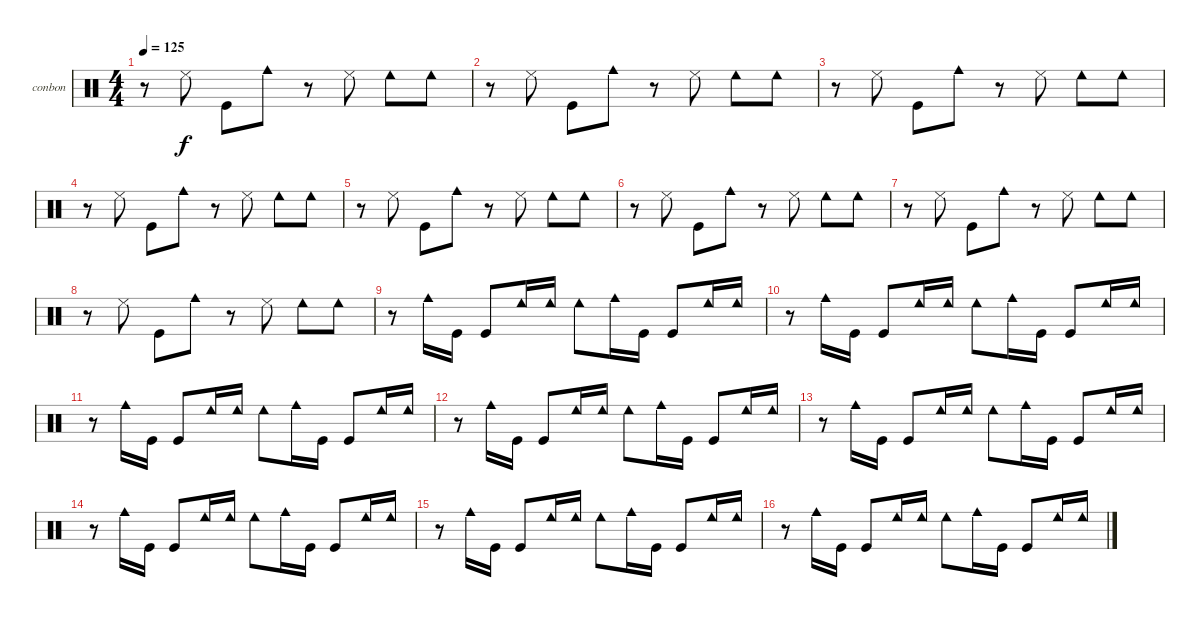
\bracketExtendMode groupsimilarinstruments
\firstSystemTrackNameOrientation horizontal
\otherSystemsTrackNameOrientation horizontal
\track ("Bongos N Congas" "conbon") {instrument percussion}
\staff {score}
\articulation defaults
\ts (4 4)
\tempo 125
\clef neutral
\ks c
r.8{dy f} "Cowbell low (tip)".8 "Kick (hit)".8 "Cowbell medium (hit)".8 r.8 "Cowbell low (tip)".8 "Cowbell low (hit)".8 "Cowbell low (hit)".8 |
r.8 "Cowbell low (tip)".8 "Kick (hit)".8 "Cowbell medium (hit)".8 r.8 "Cowbell low (tip)".8 "Cowbell low (hit)".8 "Cowbell low (hit)".8 |
r.8 "Cowbell low (tip)".8 "Kick (hit)".8 "Cowbell medium (hit)".8 r.8 "Cowbell low (tip)".8 "Cowbell low (hit)".8 "Cowbell low (hit)".8 |
r.8 "Cowbell low (tip)".8 "Kick (hit)".8 "Cowbell medium (hit)".8 r.8 "Cowbell low (tip)".8 "Cowbell low (hit)".8 "Cowbell low (hit)".8 |
r.8 "Cowbell low (tip)".8 "Kick (hit)".8 "Cowbell medium (hit)".8 r.8 "Cowbell low (tip)".8 "Cowbell low (hit)".8 "Cowbell low (hit)".8 |
r.8 "Cowbell low (tip)".8 "Kick (hit)".8 "Cowbell medium (hit)".8 r.8 "Cowbell low (tip)".8 "Cowbell low (hit)".8 "Cowbell low (hit)".8 |
r.8 "Cowbell low (tip)".8 "Kick (hit)".8 "Cowbell medium (hit)".8 r.8 "Cowbell low (tip)".8 "Cowbell low (hit)".8 "Cowbell low (hit)".8 |
r.8 "Cowbell low (tip)".8 "Kick (hit)".8 "Cowbell medium (hit)".8 r.8 "Cowbell low (tip)".8 "Cowbell low (hit)".8 "Cowbell low (hit)".8 |
r.8 "Cowbell medium (hit)".16 "Kick (hit)".16 "Kick (hit)".8 "Cowbell low (hit)".16 "Cowbell low (hit)".16 "Cowbell low (hit)".8 "Cowbell medium (hit)".16 "Kick (hit)".16 "Kick (hit)".8 "Cowbell low (hit)".16 "Cowbell low (hit)".16 |
r.8 "Cowbell medium (hit)".16 "Kick (hit)".16 "Kick (hit)".8 "Cowbell low (hit)".16 "Cowbell low (hit)".16 "Cowbell low (hit)".8 "Cowbell medium (hit)".16 "Kick (hit)".16 "Kick (hit)".8 "Cowbell low (hit)".16 "Cowbell low (hit)".16 |
r.8 "Cowbell medium (hit)".16 "Kick (hit)".16 "Kick (hit)".8 "Cowbell low (hit)".16 "Cowbell low (hit)".16 "Cowbell low (hit)".8 "Cowbell medium (hit)".16 "Kick (hit)".16 "Kick (hit)".8 "Cowbell low (hit)".16 "Cowbell low (hit)".16 |
r.8 "Cowbell medium (hit)".16 "Kick (hit)".16 "Kick (hit)".8 "Cowbell low (hit)".16 "Cowbell low (hit)".16 "Cowbell low (hit)".8 "Cowbell medium (hit)".16 "Kick (hit)".16 "Kick (hit)".8 "Cowbell low (hit)".16 "Cowbell low (hit)".16 |
r.8 "Cowbell medium (hit)".16 "Kick (hit)".16 "Kick (hit)".8 "Cowbell low (hit)".16 "Cowbell low (hit)".16 "Cowbell low (hit)".8 "Cowbell medium (hit)".16 "Kick (hit)".16 "Kick (hit)".8 "Cowbell low (hit)".16 "Cowbell low (hit)".16 |
r.8 "Cowbell medium (hit)".16 "Kick (hit)".16 "Kick (hit)".8 "Cowbell low (hit)".16 "Cowbell low (hit)".16 "Cowbell low (hit)".8 "Cowbell medium (hit)".16 "Kick (hit)".16 "Kick (hit)".8 "Cowbell low (hit)".16 "Cowbell low (hit)".16 |
r.8 "Cowbell medium (hit)".16 "Kick (hit)".16 "Kick (hit)".8 "Cowbell low (hit)".16 "Cowbell low (hit)".16 "Cowbell low (hit)".8 "Cowbell medium (hit)".16 "Kick (hit)".16 "Kick (hit)".8 "Cowbell low (hit)".16 "Cowbell low (hit)".16 |
r.8 "Cowbell medium (hit)".16 "Kick (hit)".16 "Kick (hit)".8 "Cowbell low (hit)".16 "Cowbell low (hit)".16 "Cowbell low (hit)".8 "Cowbell medium (hit)".16 "Kick (hit)".16 "Kick (hit)".8 "Cowbell low (hit)".16 "Cowbell low (hit)".16
